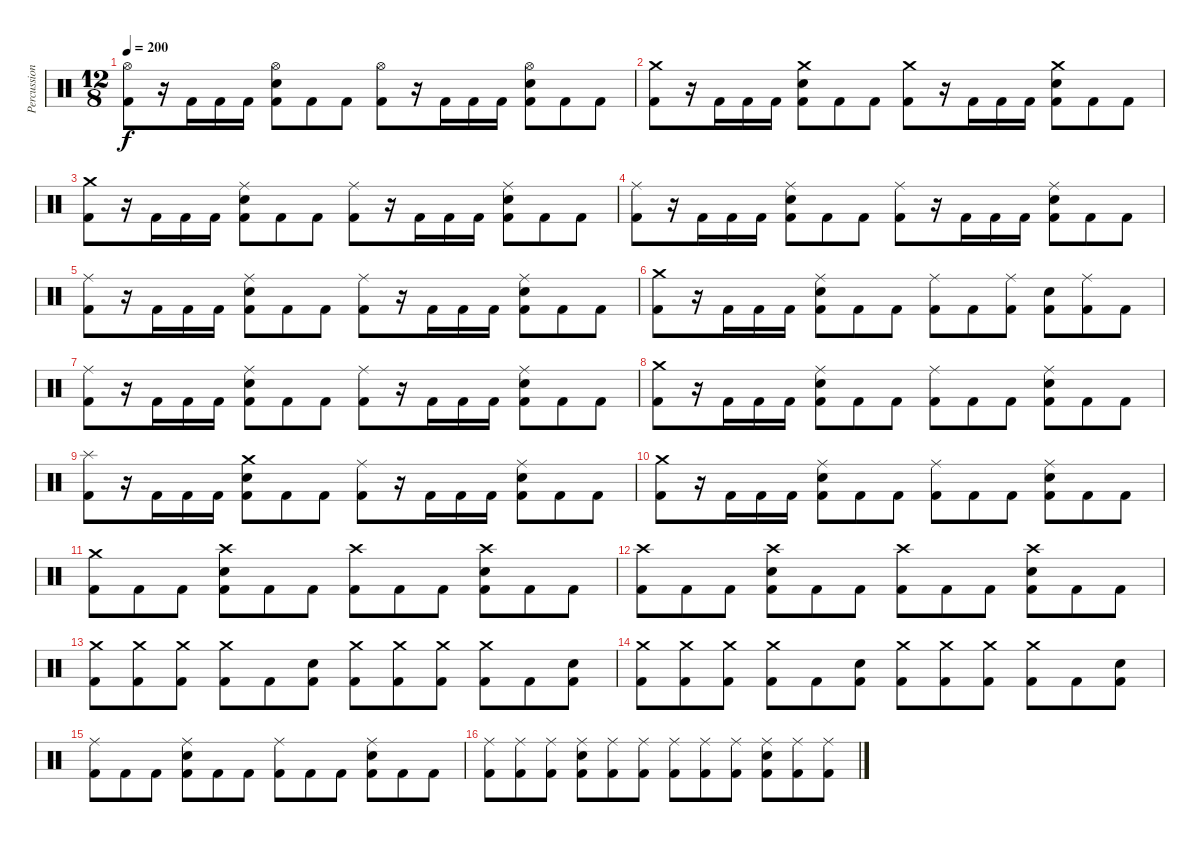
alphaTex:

\track ("Percussion" "Percussion") {instrument percussion}
\staff {score}
\articulation defaults
\ts (12 8)
\tempo 200
\clef neutral
\ks c
("Hi-Hat (open)" "Kick (hit) 2").8{dy f} r.16 "Kick (hit) 2".16 "Kick (hit) 2".16 "Kick (hit) 2".16 ("Hi-Hat (open)" "Snare (hit) 2" "Kick (hit) 2").8 "Kick (hit) 2".8 "Kick (hit) 2".8 ("Hi-Hat (open)" "Kick (hit) 2").8 r.16 "Kick (hit) 2".16 "Kick (hit) 2".16 "Kick (hit) 2".16 ("Hi-Hat (open)" "Snare (hit) 2" "Kick (hit) 2").8 "Kick (hit) 2".8 "Kick (hit) 2".8 |
("Crash medium (hit)" "Kick (hit) 2").8 r.16 "Kick (hit) 2".16 "Kick (hit) 2".16 "Kick (hit) 2".16 ("Crash medium (hit)" "Snare (hit) 2" "Kick (hit) 2").8 "Kick (hit) 2".8 "Kick (hit) 2".8 ("Crash medium (hit)" "Kick (hit) 2").8 r.16 "Kick (hit) 2".16 "Kick (hit) 2".16 "Kick (hit) 2".16 ("Crash medium (hit)" "Snare (hit) 2" "Kick (hit) 2").8 "Kick (hit) 2".8 "Kick (hit) 2".8 |
("Crash medium (hit)" "Kick (hit) 2").8 r.16 "Kick (hit) 2".16 "Kick (hit) 2".16 "Kick (hit) 2".16 ("Ride (middle)" "Snare (hit) 2" "Kick (hit) 2").8 "Kick (hit) 2".8 "Kick (hit) 2".8 ("Ride (middle)" "Kick (hit) 2").8 r.16 "Kick (hit) 2".16 "Kick (hit) 2".16 "Kick (hit) 2".16 ("Ride (middle)" "Snare (hit) 2" "Kick (hit) 2").8 "Kick (hit) 2".8 "Kick (hit) 2".8 |
("Ride (middle)" "Kick (hit) 2").8 r.16 "Kick (hit) 2".16 "Kick (hit) 2".16 "Kick (hit) 2".16 ("Ride (middle)" "Snare (hit) 2" "Kick (hit) 2").8 "Kick (hit) 2".8 "Kick (hit) 2".8 ("Ride (middle)" "Kick (hit) 2").8 r.16 "Kick (hit) 2".16 "Kick (hit) 2".16 "Kick (hit) 2".16 ("Ride (middle)" "Snare (hit) 2" "Kick (hit) 2").8 "Kick (hit) 2".8 "Kick (hit) 2".8 |
("Ride (middle)" "Kick (hit) 2").8 r.16 "Kick (hit) 2".16 "Kick (hit) 2".16 "Kick (hit) 2".16 ("Ride (middle)" "Snare (hit) 2" "Kick (hit) 2").8 "Kick (hit) 2".8 "Kick (hit) 2".8 ("Ride (middle)" "Kick (hit) 2").8 r.16 "Kick (hit) 2".16 "Kick (hit) 2".16 "Kick (hit) 2".16 ("Ride (middle)" "Snare (hit) 2" "Kick (hit) 2").8 "Kick (hit) 2".8 "Kick (hit) 2".8 |
("Crash medium (hit)" "Kick (hit) 2").8 r.16 "Kick (hit) 2".16 "Kick (hit) 2".16 "Kick (hit) 2".16 ("Ride (middle)" "Snare (hit) 2" "Kick (hit) 2").8 "Kick (hit) 2".8 "Kick (hit) 2".8 ("Ride (middle)" "Kick (hit) 2").8 "Kick (hit) 2".8 ("Ride (middle)" "Kick (hit) 2").8 ("Snare (hit) 2" "Kick (hit) 2").8 ("Ride (middle)" "Kick (hit) 2").8 "Kick (hit) 2".8 |
("Ride (middle)" "Kick (hit) 2").8 r.16 "Kick (hit) 2".16 "Kick (hit) 2".16 "Kick (hit) 2".16 ("Ride (middle)" "Snare (hit) 2" "Kick (hit) 2").8 "Kick (hit) 2".8 "Kick (hit) 2".8 ("Ride (middle)" "Kick (hit) 2").8 r.16 "Kick (hit) 2".16 "Kick (hit) 2".16 "Kick (hit) 2".16 ("Ride (middle)" "Snare (hit) 2" "Kick (hit) 2").8 "Kick (hit) 2".8 "Kick (hit) 2".8 |
("Crash medium (hit)" "Kick (hit) 2").8 r.16 "Kick (hit) 2".16 "Kick (hit) 2".16 "Kick (hit) 2".16 ("Ride (middle)" "Snare (hit) 2" "Kick (hit) 2").8 "Kick (hit) 2".8 "Kick (hit) 2".8 ("Ride (middle)" "Kick (hit) 2").8 "Kick (hit) 2".8 "Kick (hit) 2".8 ("Ride (middle)" "Snare (hit) 2" "Kick (hit) 2").8 "Kick (hit) 2".8 "Kick (hit) 2".8 |
("Splash (hit)" "Kick (hit) 2").8 r.16 "Kick (hit) 2".16 "Kick (hit) 2".16 "Kick (hit) 2".16 ("Crash medium (hit)" "Snare (hit) 2" "Kick (hit) 2").8 "Kick (hit) 2".8 "Kick (hit) 2".8 ("Ride (middle)" "Kick (hit) 2").8 r.16 "Kick (hit) 2".16 "Kick (hit) 2".16 "Kick (hit) 2".16 ("Ride (middle)" "Snare (hit) 2" "Kick (hit) 2").8 "Kick (hit) 2".8 "Kick (hit) 2".8 |
("Crash medium (hit)" "Kick (hit) 2").8 r.16 "Kick (hit) 2".16 "Kick (hit) 2".16 "Kick (hit) 2".16 ("Ride (middle)" "Snare (hit) 2" "Kick (hit) 2").8 "Kick (hit) 2".8 "Kick (hit) 2".8 ("Ride (middle)" "Kick (hit) 2").8 "Kick (hit) 2".8 "Kick (hit) 2".8 ("Ride (middle)" "Snare (hit) 2" "Kick (hit) 2").8 "Kick (hit) 2".8 "Kick (hit) 2".8 |
("Crash medium (hit)" "Kick (hit) 2").8 "Kick (hit) 2".8 "Kick (hit) 2".8 ("Crash high (hit)" "Snare (hit) 2" "Kick (hit) 2").8 "Kick (hit) 2".8 "Kick (hit) 2".8 ("Crash high (hit)" "Kick (hit) 2").8 "Kick (hit) 2".8 "Kick (hit) 2".8 ("Crash high (hit)" "Snare (hit) 2" "Kick (hit) 2").8 "Kick (hit) 2".8 "Kick (hit) 2".8 |
("Crash high (hit)" "Kick (hit) 2").8 "Kick (hit) 2".8 "Kick (hit) 2".8 ("Crash high (hit)" "Snare (hit) 2" "Kick (hit) 2").8 "Kick (hit) 2".8 "Kick (hit) 2".8 ("Crash high (hit)" "Kick (hit) 2").8 "Kick (hit) 2".8 "Kick (hit) 2".8 ("Crash high (hit)" "Snare (hit) 2" "Kick (hit) 2").8 "Kick (hit) 2".8 "Kick (hit) 2".8 |
("Crash medium (hit)" "Kick (hit) 2").8 ("Crash medium (hit)" "Kick (hit) 2").8 ("Crash medium (hit)" "Kick (hit) 2").8 ("Crash medium (hit)" "Kick (hit) 2").8 "Kick (hit) 2".8 ("Snare (hit) 2" "Kick (hit) 2").8 ("Crash medium (hit)" "Kick (hit) 2").8 ("Crash medium (hit)" "Kick (hit) 2").8 ("Crash medium (hit)" "Kick (hit) 2").8 ("Crash medium (hit)" "Kick (hit) 2").8 "Kick (hit) 2".8 ("Snare (hit) 2" "Kick (hit) 2").8 |
("Crash medium (hit)" "Kick (hit) 2").8 ("Crash medium (hit)" "Kick (hit) 2").8 ("Crash medium (hit)" "Kick (hit) 2").8 ("Crash medium (hit)" "Kick (hit) 2").8 "Kick (hit) 2".8 ("Snare (hit) 2" "Kick (hit) 2").8 ("Crash medium (hit)" "Kick (hit) 2").8 ("Crash medium (hit)" "Kick (hit) 2").8 ("Crash medium (hit)" "Kick (hit) 2").8 ("Crash medium (hit)" "Kick (hit) 2").8 "Kick (hit) 2".8 ("Snare (hit) 2" "Kick (hit) 2").8 |
("Ride (middle)" "Kick (hit) 2").8 "Kick (hit) 2".8 "Kick (hit) 2".8 ("Ride (middle)" "Snare (hit) 2" "Kick (hit) 2").8 "Kick (hit) 2".8 "Kick (hit) 2".8 ("Ride (middle)" "Kick (hit) 2").8 "Kick (hit) 2".8 "Kick (hit) 2".8 ("Ride (middle)" "Snare (hit) 2" "Kick (hit) 2").8 "Kick (hit) 2".8 "Kick (hit) 2".8 |
("Ride (middle)" "Kick (hit) 2").8 ("Ride (middle)" "Kick (hit) 2").8 ("Ride (middle)" "Kick (hit) 2").8 ("Ride (middle)" "Snare (hit) 2" "Kick (hit) 2").8 ("Ride (middle)" "Kick (hit) 2").8 ("Ride (middle)" "Kick (hit) 2").8 ("Ride (middle)" "Kick (hit) 2").8 ("Ride (middle)" "Kick (hit) 2").8 ("Ride (middle)" "Kick (hit) 2").8 ("Ride (middle)" "Snare (hit) 2" "Kick (hit) 2").8 ("Ride (middle)" "Kick (hit) 2").8 ("Ride (middle)" "Kick (hit) 2").8
